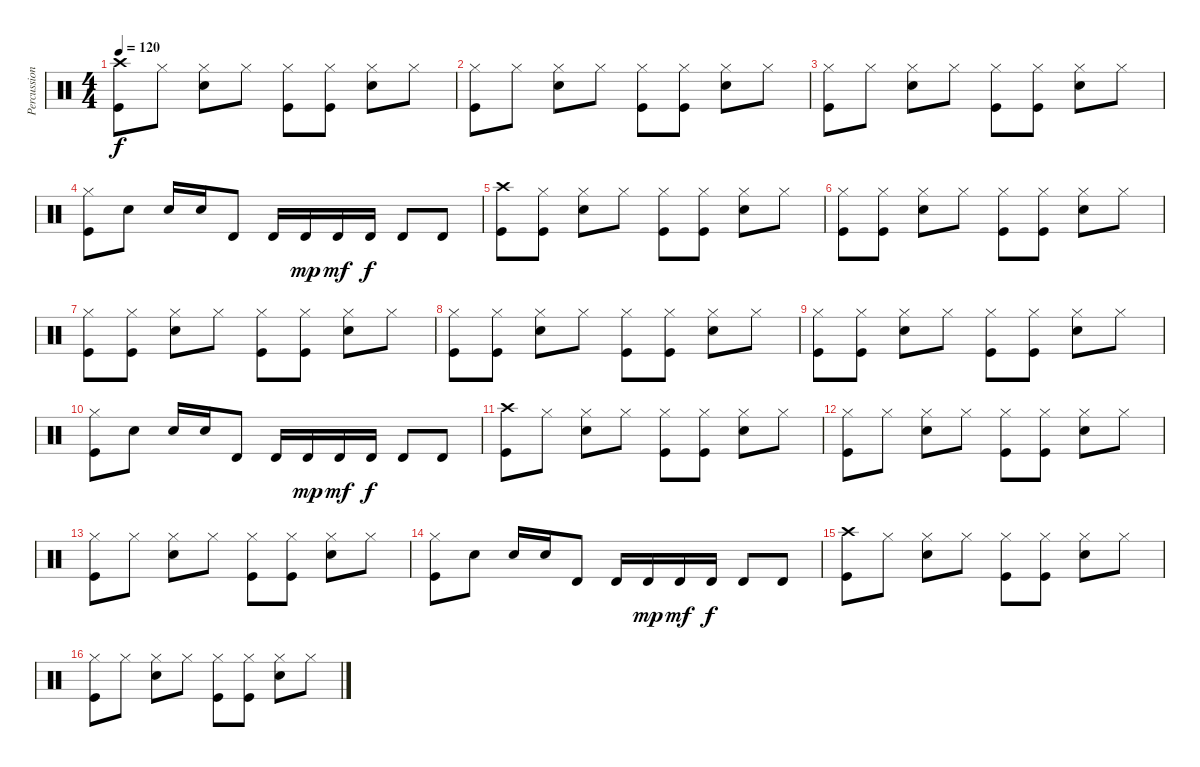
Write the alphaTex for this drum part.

\track ("Percussion" "Percussion") {instrument percussion}
\staff {score}
\articulation defaults
\ts (4 4)
\tempo 120
\clef neutral
\ks c
("Crash high (hit)" "Kick (hit)").8{dy f} "Hi-Hat (closed)".8 ("Hi-Hat (closed)" "Snare (hit) 2").8 "Hi-Hat (closed)".8 ("Hi-Hat (closed)" "Kick (hit)").8 ("Hi-Hat (closed)" "Kick (hit)").8 ("Hi-Hat (closed)" "Snare (hit) 2").8 "Hi-Hat (closed)".8 |
("Hi-Hat (closed)" "Kick (hit)").8 "Hi-Hat (closed)".8 ("Hi-Hat (closed)" "Snare (hit) 2").8 "Hi-Hat (closed)".8 ("Hi-Hat (closed)" "Kick (hit)").8 ("Hi-Hat (closed)" "Kick (hit)").8 ("Hi-Hat (closed)" "Snare (hit) 2").8 "Hi-Hat (closed)".8 |
("Hi-Hat (closed)" "Kick (hit)").8 "Hi-Hat (closed)".8 ("Hi-Hat (closed)" "Snare (hit) 2").8 "Hi-Hat (closed)".8 ("Hi-Hat (closed)" "Kick (hit)").8 ("Hi-Hat (closed)" "Kick (hit)").8 ("Hi-Hat (closed)" "Snare (hit) 2").8 "Hi-Hat (closed)".8 |
("Hi-Hat (closed)" "Kick (hit)").8 "Snare (hit) 2".8 "Snare (hit) 2".16 "Snare (hit) 2".16 "Timbale high (hit)".8 "Timbale high (hit)".16 "Timbale high (hit)".16{dy mp} "Timbale high (hit)".16{dy mf} "Timbale high (hit)".16{dy f} "Timbale high (hit)".8 "Timbale high (hit)".8 |
("Crash high (hit)" "Kick (hit)").8 ("Hi-Hat (closed)" "Kick (hit)").8 ("Hi-Hat (closed)" "Snare (hit) 2").8 "Hi-Hat (closed)".8 ("Hi-Hat (closed)" "Kick (hit)").8 ("Hi-Hat (closed)" "Kick (hit)").8 ("Hi-Hat (closed)" "Snare (hit) 2").8 "Hi-Hat (closed)".8 |
("Hi-Hat (closed)" "Kick (hit)").8 ("Hi-Hat (closed)" "Kick (hit)").8 ("Hi-Hat (closed)" "Snare (hit) 2").8 "Hi-Hat (closed)".8 ("Hi-Hat (closed)" "Kick (hit)").8 ("Hi-Hat (closed)" "Kick (hit)").8 ("Hi-Hat (closed)" "Snare (hit) 2").8 "Hi-Hat (closed)".8 |
("Hi-Hat (closed)" "Kick (hit)").8 ("Hi-Hat (closed)" "Kick (hit)").8 ("Hi-Hat (closed)" "Snare (hit) 2").8 "Hi-Hat (closed)".8 ("Hi-Hat (closed)" "Kick (hit)").8 ("Hi-Hat (closed)" "Kick (hit)").8 ("Hi-Hat (closed)" "Snare (hit) 2").8 "Hi-Hat (closed)".8 |
("Hi-Hat (closed)" "Kick (hit)").8 ("Hi-Hat (closed)" "Kick (hit)").8 ("Hi-Hat (closed)" "Snare (hit) 2").8 "Hi-Hat (closed)".8 ("Hi-Hat (closed)" "Kick (hit)").8 ("Hi-Hat (closed)" "Kick (hit)").8 ("Hi-Hat (closed)" "Snare (hit) 2").8 "Hi-Hat (closed)".8 |
("Hi-Hat (closed)" "Kick (hit)").8 ("Hi-Hat (closed)" "Kick (hit)").8 ("Hi-Hat (closed)" "Snare (hit) 2").8 "Hi-Hat (closed)".8 ("Hi-Hat (closed)" "Kick (hit)").8 ("Hi-Hat (closed)" "Kick (hit)").8 ("Hi-Hat (closed)" "Snare (hit) 2").8 "Hi-Hat (closed)".8 |
("Hi-Hat (closed)" "Kick (hit)").8 "Snare (hit) 2".8 "Snare (hit) 2".16 "Snare (hit) 2".16 "Timbale high (hit)".8 "Timbale high (hit)".16 "Timbale high (hit)".16{dy mp} "Timbale high (hit)".16{dy mf} "Timbale high (hit)".16{dy f} "Timbale high (hit)".8 "Timbale high (hit)".8 |
("Crash high (hit)" "Kick (hit)").8 "Hi-Hat (closed)".8 ("Hi-Hat (closed)" "Snare (hit) 2").8 "Hi-Hat (closed)".8 ("Hi-Hat (closed)" "Kick (hit)").8 ("Hi-Hat (closed)" "Kick (hit)").8 ("Hi-Hat (closed)" "Snare (hit) 2").8 "Hi-Hat (closed)".8 |
("Hi-Hat (closed)" "Kick (hit)").8 "Hi-Hat (closed)".8 ("Hi-Hat (closed)" "Snare (hit) 2").8 "Hi-Hat (closed)".8 ("Hi-Hat (closed)" "Kick (hit)").8 ("Hi-Hat (closed)" "Kick (hit)").8 ("Hi-Hat (closed)" "Snare (hit) 2").8 "Hi-Hat (closed)".8 |
("Hi-Hat (closed)" "Kick (hit)").8 "Hi-Hat (closed)".8 ("Hi-Hat (closed)" "Snare (hit) 2").8 "Hi-Hat (closed)".8 ("Hi-Hat (closed)" "Kick (hit)").8 ("Hi-Hat (closed)" "Kick (hit)").8 ("Hi-Hat (closed)" "Snare (hit) 2").8 "Hi-Hat (closed)".8 |
("Hi-Hat (closed)" "Kick (hit)").8 "Snare (hit) 2".8 "Snare (hit) 2".16 "Snare (hit) 2".16 "Timbale high (hit)".8 "Timbale high (hit)".16 "Timbale high (hit)".16{dy mp} "Timbale high (hit)".16{dy mf} "Timbale high (hit)".16{dy f} "Timbale high (hit)".8 "Timbale high (hit)".8 |
("Crash high (hit)" "Kick (hit)").8 "Hi-Hat (closed)".8 ("Hi-Hat (closed)" "Snare (hit) 2").8 "Hi-Hat (closed)".8 ("Hi-Hat (closed)" "Kick (hit)").8 ("Hi-Hat (closed)" "Kick (hit)").8 ("Hi-Hat (closed)" "Snare (hit) 2").8 "Hi-Hat (closed)".8 |
("Hi-Hat (closed)" "Kick (hit)").8 "Hi-Hat (closed)".8 ("Hi-Hat (closed)" "Snare (hit) 2").8 "Hi-Hat (closed)".8 ("Hi-Hat (closed)" "Kick (hit)").8 ("Hi-Hat (closed)" "Kick (hit)").8 ("Hi-Hat (closed)" "Snare (hit) 2").8 "Hi-Hat (closed)".8
